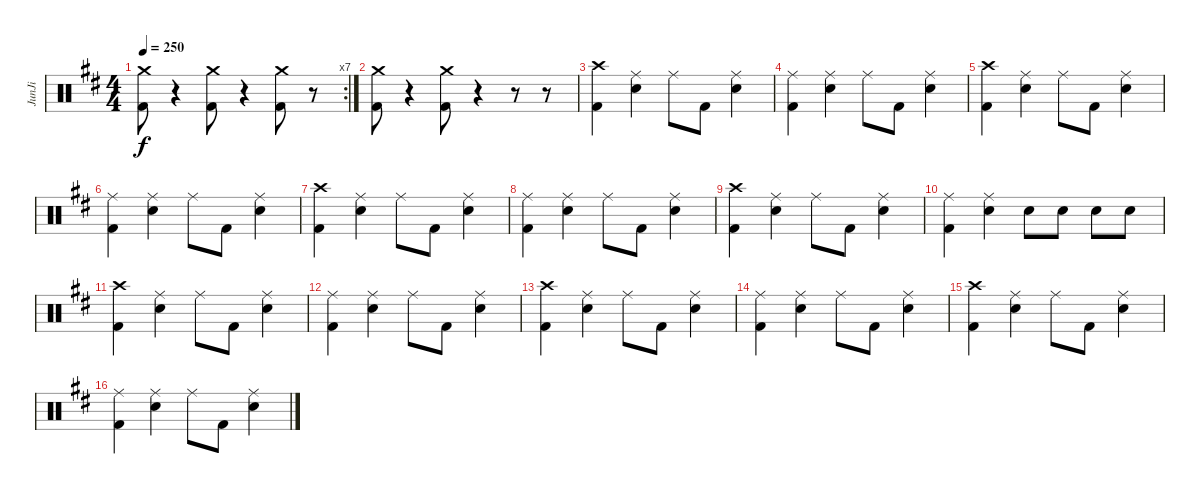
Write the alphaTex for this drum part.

\track ("JunJi" "JunJi") {instrument percussion}
\staff {score}
\articulation defaults
\rc 7
\ts (4 4)
\tempo 250
\clef neutral
\ks d
("Crash medium (hit)" "Kick (hit) 2").8{dy f} r.4 ("Crash medium (hit)" "Kick (hit) 2").8 r.4 ("Crash medium (hit)" "Kick (hit) 2").8 r.8 |
("Crash medium (hit)" "Kick (hit) 2").8 r.4 ("Crash medium (hit)" "Kick (hit) 2").8 r.4 r.8 r.8 |
("Crash high (hit)" "Kick (hit) 2").4 ("Ride (middle)" "Snare (hit) 2").4 "Ride (middle)".8 "Kick (hit) 2".8 ("Ride (middle)" "Snare (hit) 2").4 |
("Ride (middle)" "Kick (hit) 2").4 ("Ride (middle)" "Snare (hit) 2").4 "Ride (middle)".8 "Kick (hit) 2".8 ("Ride (middle)" "Snare (hit) 2").4 |
("Crash high (hit)" "Kick (hit) 2").4 ("Ride (middle)" "Snare (hit) 2").4 "Ride (middle)".8 "Kick (hit) 2".8 ("Ride (middle)" "Snare (hit) 2").4 |
("Ride (middle)" "Kick (hit) 2").4 ("Ride (middle)" "Snare (hit) 2").4 "Ride (middle)".8 "Kick (hit) 2".8 ("Ride (middle)" "Snare (hit) 2").4 |
("Crash high (hit)" "Kick (hit) 2").4 ("Ride (middle)" "Snare (hit) 2").4 "Ride (middle)".8 "Kick (hit) 2".8 ("Ride (middle)" "Snare (hit) 2").4 |
("Ride (middle)" "Kick (hit) 2").4 ("Ride (middle)" "Snare (hit) 2").4 "Ride (middle)".8 "Kick (hit) 2".8 ("Ride (middle)" "Snare (hit) 2").4 |
("Crash high (hit)" "Kick (hit) 2").4 ("Ride (middle)" "Snare (hit) 2").4 "Ride (middle)".8 "Kick (hit) 2".8 ("Ride (middle)" "Snare (hit) 2").4 |
("Ride (middle)" "Kick (hit) 2").4 ("Ride (middle)" "Snare (hit) 2").4 "Snare (hit) 2".8 "Snare (hit) 2".8 "Snare (hit) 2".8 "Snare (hit) 2".8 |
("Crash high (hit)" "Kick (hit) 2").4 ("Ride (middle)" "Snare (hit) 2").4 "Ride (middle)".8 "Kick (hit) 2".8 ("Ride (middle)" "Snare (hit) 2").4 |
("Ride (middle)" "Kick (hit) 2").4 ("Ride (middle)" "Snare (hit) 2").4 "Ride (middle)".8 "Kick (hit) 2".8 ("Ride (middle)" "Snare (hit) 2").4 |
("Crash high (hit)" "Kick (hit) 2").4 ("Ride (middle)" "Snare (hit) 2").4 "Ride (middle)".8 "Kick (hit) 2".8 ("Ride (middle)" "Snare (hit) 2").4 |
("Ride (middle)" "Kick (hit) 2").4 ("Ride (middle)" "Snare (hit) 2").4 "Ride (middle)".8 "Kick (hit) 2".8 ("Ride (middle)" "Snare (hit) 2").4 |
("Crash high (hit)" "Kick (hit) 2").4 ("Ride (middle)" "Snare (hit) 2").4 "Ride (middle)".8 "Kick (hit) 2".8 ("Ride (middle)" "Snare (hit) 2").4 |
("Ride (middle)" "Kick (hit) 2").4 ("Ride (middle)" "Snare (hit) 2").4 "Ride (middle)".8 "Kick (hit) 2".8 ("Ride (middle)" "Snare (hit) 2").4
